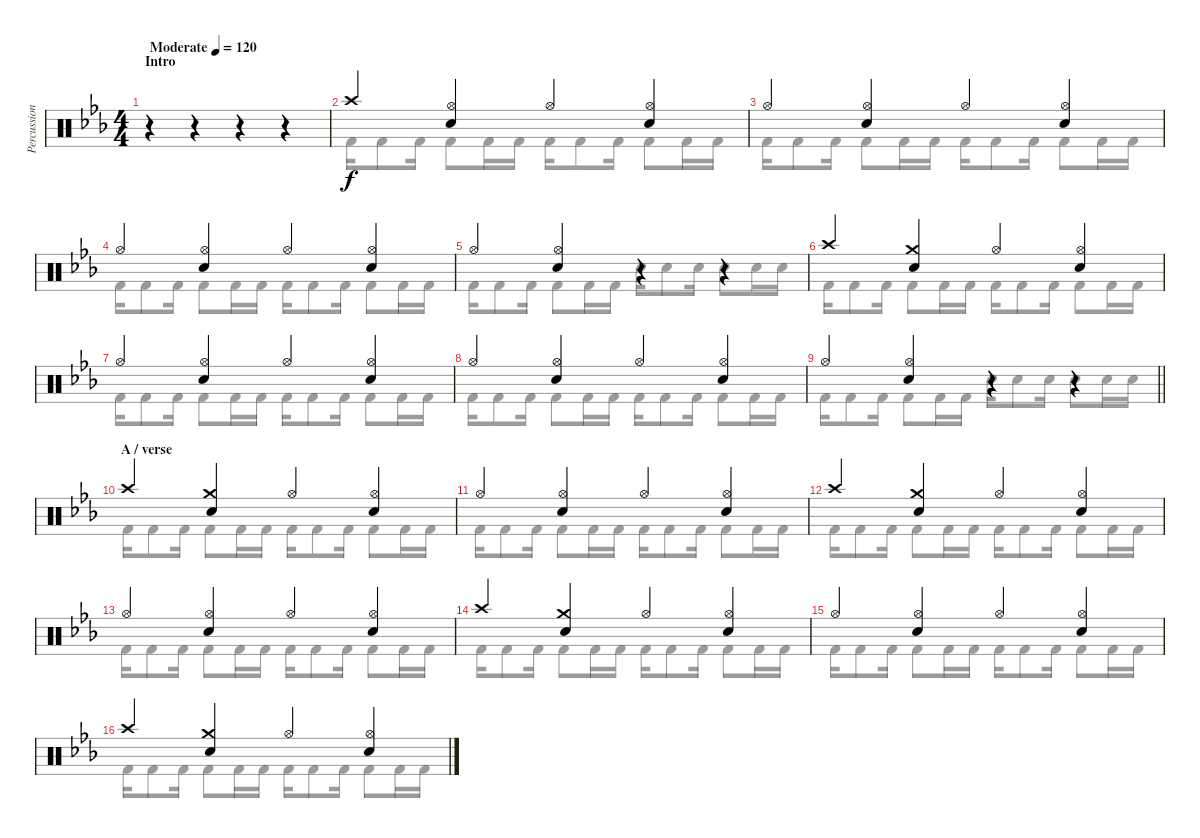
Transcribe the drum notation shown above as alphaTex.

\track ("Percussion" "Percussion") {instrument percussion}
\staff {score}
\articulation defaults
\voice
\ts (4 4)
\section ("" "Intro")
\tempo (120 "Moderate")
\clef neutral
\ks cminor
r.4{dy f} r.4 r.4 r.4 |
"Crash high (hit)".4 ("Hi-Hat (open)" "Snare (hit) 2").4 "Hi-Hat (open)".4 ("Hi-Hat (open)" "Snare (hit) 2").4 |
"Hi-Hat (open)".4 ("Hi-Hat (open)" "Snare (hit) 2").4 "Hi-Hat (open)".4 ("Hi-Hat (open)" "Snare (hit) 2").4 |
"Hi-Hat (open)".4 ("Hi-Hat (open)" "Snare (hit) 2").4 "Hi-Hat (open)".4 ("Hi-Hat (open)" "Snare (hit) 2").4 |
"Hi-Hat (open)".4 ("Hi-Hat (open)" "Snare (hit) 2").4 r.4 r.4 |
"Crash high (hit)".4 ("Crash medium (hit)" "Snare (hit) 2").4 "Hi-Hat (open)".4 ("Hi-Hat (open)" "Snare (hit) 2").4 |
"Hi-Hat (open)".4 ("Hi-Hat (open)" "Snare (hit) 2").4 "Hi-Hat (open)".4 ("Hi-Hat (open)" "Snare (hit) 2").4 |
"Hi-Hat (open)".4 ("Hi-Hat (open)" "Snare (hit) 2").4 "Hi-Hat (open)".4 ("Hi-Hat (open)" "Snare (hit) 2").4 |
\barLineRight lightlight "Hi-Hat (open)".4
("Hi-Hat (open)" "Snare (hit) 2").4 r.4 r.4 |
\section ("" "A / verse")
"Crash high (hit)".4 ("Crash medium (hit)" "Snare (hit) 2").4 "Hi-Hat (open)".4 ("Hi-Hat (open)" "Snare (hit) 2").4 |
"Hi-Hat (open)".4 ("Hi-Hat (open)" "Snare (hit) 2").4 "Hi-Hat (open)".4 ("Hi-Hat (open)" "Snare (hit) 2").4 |
"Crash high (hit)".4 ("Crash medium (hit)" "Snare (hit) 2").4 "Hi-Hat (open)".4 ("Hi-Hat (open)" "Snare (hit) 2").4 |
"Hi-Hat (open)".4 ("Hi-Hat (open)" "Snare (hit) 2").4 "Hi-Hat (open)".4 ("Hi-Hat (open)" "Snare (hit) 2").4 |
"Crash high (hit)".4 ("Crash medium (hit)" "Snare (hit) 2").4 "Hi-Hat (open)".4 ("Hi-Hat (open)" "Snare (hit) 2").4 |
"Hi-Hat (open)".4 ("Hi-Hat (open)" "Snare (hit) 2").4 "Hi-Hat (open)".4 ("Hi-Hat (open)" "Snare (hit) 2").4 |
"Crash high (hit)".4 ("Crash medium (hit)" "Snare (hit) 2").4 "Hi-Hat (open)".4 ("Hi-Hat (open)" "Snare (hit) 2").4
\voice
\clef neutral
\ottava regular
\simile none
\ks cminor
|
"Kick (hit) 2".16 "Kick (hit) 2".8 "Kick (hit) 2".16 "Kick (hit) 2".8 "Kick (hit) 2".16 "Kick (hit) 2".16 "Kick (hit) 2".16 "Kick (hit) 2".8 "Kick (hit) 2".16 "Kick (hit) 2".8 "Kick (hit) 2".16 "Kick (hit) 2".16 |
"Kick (hit) 2".16 "Kick (hit) 2".8 "Kick (hit) 2".16 "Kick (hit) 2".8 "Kick (hit) 2".16 "Kick (hit) 2".16 "Kick (hit) 2".16 "Kick (hit) 2".8 "Kick (hit) 2".16 "Kick (hit) 2".8 "Kick (hit) 2".16 "Kick (hit) 2".16 |
"Kick (hit) 2".16 "Kick (hit) 2".8 "Kick (hit) 2".16 "Kick (hit) 2".8 "Kick (hit) 2".16 "Kick (hit) 2".16 "Kick (hit) 2".16 "Kick (hit) 2".8 "Kick (hit) 2".16 "Kick (hit) 2".8 "Kick (hit) 2".16 "Kick (hit) 2".16 |
"Kick (hit) 2".16 "Kick (hit) 2".8 "Kick (hit) 2".16 "Kick (hit) 2".8 "Kick (hit) 2".16 "Kick (hit) 2".16 "Snare (hit) 2".16 "Snare (hit) 2".8 "Snare (hit) 2".16 "Snare (hit) 2".8 "Snare (hit) 2".16 "Snare (hit) 2".16 |
"Kick (hit) 2".16 "Kick (hit) 2".8 "Kick (hit) 2".16 "Kick (hit) 2".8 "Kick (hit) 2".16 "Kick (hit) 2".16 "Kick (hit) 2".16 "Kick (hit) 2".8 "Kick (hit) 2".16 "Kick (hit) 2".8 "Kick (hit) 2".16 "Kick (hit) 2".16 |
"Kick (hit) 2".16 "Kick (hit) 2".8 "Kick (hit) 2".16 "Kick (hit) 2".8 "Kick (hit) 2".16 "Kick (hit) 2".16 "Kick (hit) 2".16 "Kick (hit) 2".8 "Kick (hit) 2".16 "Kick (hit) 2".8 "Kick (hit) 2".16 "Kick (hit) 2".16 |
"Kick (hit) 2".16 "Kick (hit) 2".8 "Kick (hit) 2".16 "Kick (hit) 2".8 "Kick (hit) 2".16 "Kick (hit) 2".16 "Kick (hit) 2".16 "Kick (hit) 2".8 "Kick (hit) 2".16 "Kick (hit) 2".8 "Kick (hit) 2".16 "Kick (hit) 2".16 |
\barLineRight lightlight "Kick (hit) 2".16 "Kick (hit) 2".8 "Kick (hit) 2".16 "Kick (hit) 2".8 "Kick (hit) 2".16 "Kick (hit) 2".16 "Snare (hit) 2".16 "Snare (hit) 2".8 "Snare (hit) 2".16 "Snare (hit) 2".8 "Snare (hit) 2".16 "Snare (hit) 2".16
|
"Kick (hit) 2".16 "Kick (hit) 2".8 "Kick (hit) 2".16 "Kick (hit) 2".8 "Kick (hit) 2".16 "Kick (hit) 2".16 "Kick (hit) 2".16 "Kick (hit) 2".8 "Kick (hit) 2".16 "Kick (hit) 2".8 "Kick (hit) 2".16 "Kick (hit) 2".16 |
"Kick (hit) 2".16 "Kick (hit) 2".8 "Kick (hit) 2".16 "Kick (hit) 2".8 "Kick (hit) 2".16 "Kick (hit) 2".16 "Kick (hit) 2".16 "Kick (hit) 2".8 "Kick (hit) 2".16 "Kick (hit) 2".8 "Kick (hit) 2".16 "Kick (hit) 2".16 |
"Kick (hit) 2".16 "Kick (hit) 2".8 "Kick (hit) 2".16 "Kick (hit) 2".8 "Kick (hit) 2".16 "Kick (hit) 2".16 "Kick (hit) 2".16 "Kick (hit) 2".8 "Kick (hit) 2".16 "Kick (hit) 2".8 "Kick (hit) 2".16 "Kick (hit) 2".16 |
"Kick (hit) 2".16 "Kick (hit) 2".8 "Kick (hit) 2".16 "Kick (hit) 2".8 "Kick (hit) 2".16 "Kick (hit) 2".16 "Kick (hit) 2".16 "Kick (hit) 2".8 "Kick (hit) 2".16 "Kick (hit) 2".8 "Kick (hit) 2".16 "Kick (hit) 2".16 |
"Kick (hit) 2".16 "Kick (hit) 2".8 "Kick (hit) 2".16 "Kick (hit) 2".8 "Kick (hit) 2".16 "Kick (hit) 2".16 "Kick (hit) 2".16 "Kick (hit) 2".8 "Kick (hit) 2".16 "Kick (hit) 2".8 "Kick (hit) 2".16 "Kick (hit) 2".16 |
"Kick (hit) 2".16 "Kick (hit) 2".8 "Kick (hit) 2".16 "Kick (hit) 2".8 "Kick (hit) 2".16 "Kick (hit) 2".16 "Kick (hit) 2".16 "Kick (hit) 2".8 "Kick (hit) 2".16 "Kick (hit) 2".8 "Kick (hit) 2".16 "Kick (hit) 2".16 |
"Kick (hit) 2".16 "Kick (hit) 2".8 "Kick (hit) 2".16 "Kick (hit) 2".8 "Kick (hit) 2".16 "Kick (hit) 2".16 "Kick (hit) 2".16 "Kick (hit) 2".8 "Kick (hit) 2".16 "Kick (hit) 2".8 "Kick (hit) 2".16 "Kick (hit) 2".16
